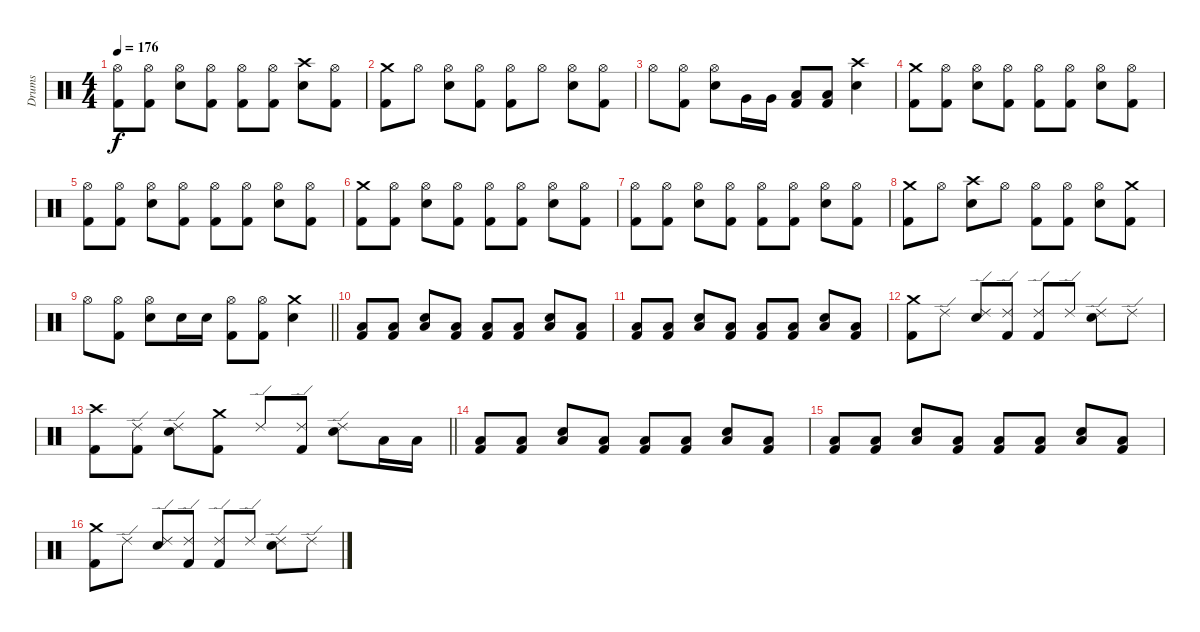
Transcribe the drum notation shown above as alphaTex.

\track ("Drums" "Drums") {instrument percussion}
\staff {score}
\articulation defaults
\ts (4 4)
\tempo 176
\clef neutral
\ks c
("Hi-Hat (open)" "Kick (hit) 2").8{dy f} ("Hi-Hat (open)" "Kick (hit) 2").8 ("Hi-Hat (open)" "Electric Snare (hit)").8 ("Hi-Hat (open)" "Kick (hit) 2").8 ("Hi-Hat (open)" "Kick (hit) 2").8 ("Hi-Hat (open)" "Kick (hit) 2").8 ("Crash high (hit)" "Electric Snare (hit)").8 ("Hi-Hat (open)" "Kick (hit) 2").8 |
("Crash medium (hit)" "Kick (hit) 2").8 "Hi-Hat (open)".8 ("Hi-Hat (open)" "Electric Snare (hit)").8 ("Hi-Hat (open)" "Kick (hit) 2").8 ("Hi-Hat (open)" "Kick (hit) 2").8 "Hi-Hat (open)".8 ("Hi-Hat (open)" "Electric Snare (hit)").8 ("Hi-Hat (open)" "Kick (hit) 2").8 |
"Hi-Hat (open)".8 ("Hi-Hat (open)" "Kick (hit) 2").8 ("Hi-Hat (open)" "Electric Snare (hit)").8 "Very Low Tom (hit)".16 "Very Low Tom (hit)".16 ("Low Floor Tom (hit)" "Kick (hit) 2").8 ("Low Floor Tom (hit)" "Kick (hit) 2").8 ("Crash high (hit)" "Electric Snare (hit)").4 |
("Crash medium (hit)" "Kick (hit) 2").8 ("Hi-Hat (open)" "Kick (hit) 2").8 ("Hi-Hat (open)" "Electric Snare (hit)").8 ("Hi-Hat (open)" "Kick (hit) 2").8 ("Hi-Hat (open)" "Kick (hit) 2").8 ("Hi-Hat (open)" "Kick (hit) 2").8 ("Hi-Hat (open)" "Electric Snare (hit)").8 ("Hi-Hat (open)" "Kick (hit) 2").8 |
("Hi-Hat (open)" "Kick (hit) 2").8 ("Hi-Hat (open)" "Kick (hit) 2").8 ("Hi-Hat (open)" "Electric Snare (hit)").8 ("Hi-Hat (open)" "Kick (hit) 2").8 ("Hi-Hat (open)" "Kick (hit) 2").8 ("Hi-Hat (open)" "Kick (hit) 2").8 ("Hi-Hat (open)" "Electric Snare (hit)").8 ("Hi-Hat (open)" "Kick (hit) 2").8 |
("Crash medium (hit)" "Kick (hit) 2").8 ("Hi-Hat (open)" "Kick (hit) 2").8 ("Hi-Hat (open)" "Electric Snare (hit)").8 ("Hi-Hat (open)" "Kick (hit) 2").8 ("Hi-Hat (open)" "Kick (hit) 2").8 ("Hi-Hat (open)" "Kick (hit) 2").8 ("Hi-Hat (open)" "Electric Snare (hit)").8 ("Hi-Hat (open)" "Kick (hit) 2").8 |
("Hi-Hat (open)" "Kick (hit) 2").8 ("Hi-Hat (open)" "Kick (hit) 2").8 ("Hi-Hat (open)" "Electric Snare (hit)").8 ("Hi-Hat (open)" "Kick (hit) 2").8 ("Hi-Hat (open)" "Kick (hit) 2").8 ("Hi-Hat (open)" "Kick (hit) 2").8 ("Hi-Hat (open)" "Electric Snare (hit)").8 ("Hi-Hat (open)" "Kick (hit) 2").8 |
("Crash medium (hit)" "Kick (hit) 2").8 "Hi-Hat (open)".8 ("Crash high (hit)" "Electric Snare (hit)").8 "Hi-Hat (open)".8 ("Hi-Hat (open)" "Kick (hit) 2").8 ("Hi-Hat (open)" "Kick (hit) 2").8 ("Hi-Hat (open)" "Electric Snare (hit)").8 ("Crash medium (hit)" "Kick (hit) 2").8 |
\barLineRight lightlight "Hi-Hat (open)".8
("Hi-Hat (open)" "Kick (hit) 2").8 ("Hi-Hat (open)" "Electric Snare (hit)").8 "Electric Snare (hit)".16 "Electric Snare (hit)".16 ("Hi-Hat (open)" "Kick (hit) 2").8 ("Hi-Hat (open)" "Kick (hit) 2").8 ("Crash medium (hit)" "Electric Snare (hit)").4 |
("Low Floor Tom (hit)" "Kick (hit) 2").8 ("Low Floor Tom (hit)" "Kick (hit) 2").8 ("Electric Snare (hit)" "Low Floor Tom (hit)").8 ("Low Floor Tom (hit)" "Kick (hit) 2").8 ("Low Floor Tom (hit)" "Kick (hit) 2").8 ("Low Floor Tom (hit)" "Kick (hit) 2").8 ("Electric Snare (hit)" "Low Floor Tom (hit)").8 ("Low Floor Tom (hit)" "Kick (hit) 2").8 |
("Low Floor Tom (hit)" "Kick (hit) 2").8 ("Low Floor Tom (hit)" "Kick (hit) 2").8 ("Electric Snare (hit)" "Low Floor Tom (hit)").8 ("Low Floor Tom (hit)" "Kick (hit) 2").8 ("Low Floor Tom (hit)" "Kick (hit) 2").8 ("Low Floor Tom (hit)" "Kick (hit) 2").8 ("Electric Snare (hit)" "Low Floor Tom (hit)").8 ("Low Floor Tom (hit)" "Kick (hit) 2").8 |
("Crash medium (hit)" "Kick (hit) 2").8 "Ride (edge) 2".8 ("Ride (edge) 2" "Electric Snare (hit)").8 ("Ride (edge) 2" "Kick (hit) 2").8 ("Ride (edge) 2" "Kick (hit) 2").8 "Ride (edge) 2".8 ("Ride (edge) 2" "Electric Snare (hit)").8 "Ride (edge) 2".8 |
\barLineRight lightlight
("Crash high (hit)" "Kick (hit) 2").8 ("Ride (edge) 2" "Kick (hit) 2").8 ("Ride (edge) 2" "Electric Snare (hit)").8 ("Crash medium (hit)" "Kick (hit) 2").8 "Ride (edge) 2".8 ("Ride (edge) 2" "Kick (hit) 2").8 ("Ride (edge) 2" "Electric Snare (hit)").8 "Low Floor Tom (hit)".16 "Low Floor Tom (hit)".16 |
("Low Floor Tom (hit)" "Kick (hit) 2").8 ("Low Floor Tom (hit)" "Kick (hit) 2").8 ("Electric Snare (hit)" "Low Floor Tom (hit)").8 ("Low Floor Tom (hit)" "Kick (hit) 2").8 ("Low Floor Tom (hit)" "Kick (hit) 2").8 ("Low Floor Tom (hit)" "Kick (hit) 2").8 ("Electric Snare (hit)" "Low Floor Tom (hit)").8 ("Low Floor Tom (hit)" "Kick (hit) 2").8 |
("Low Floor Tom (hit)" "Kick (hit) 2").8 ("Low Floor Tom (hit)" "Kick (hit) 2").8 ("Electric Snare (hit)" "Low Floor Tom (hit)").8 ("Low Floor Tom (hit)" "Kick (hit) 2").8 ("Low Floor Tom (hit)" "Kick (hit) 2").8 ("Low Floor Tom (hit)" "Kick (hit) 2").8 ("Electric Snare (hit)" "Low Floor Tom (hit)").8 ("Low Floor Tom (hit)" "Kick (hit) 2").8 |
("Crash medium (hit)" "Kick (hit) 2").8 "Ride (edge) 2".8 ("Ride (edge) 2" "Electric Snare (hit)").8 ("Ride (edge) 2" "Kick (hit) 2").8 ("Ride (edge) 2" "Kick (hit) 2").8 "Ride (edge) 2".8 ("Ride (edge) 2" "Electric Snare (hit)").8 "Ride (edge) 2".8
